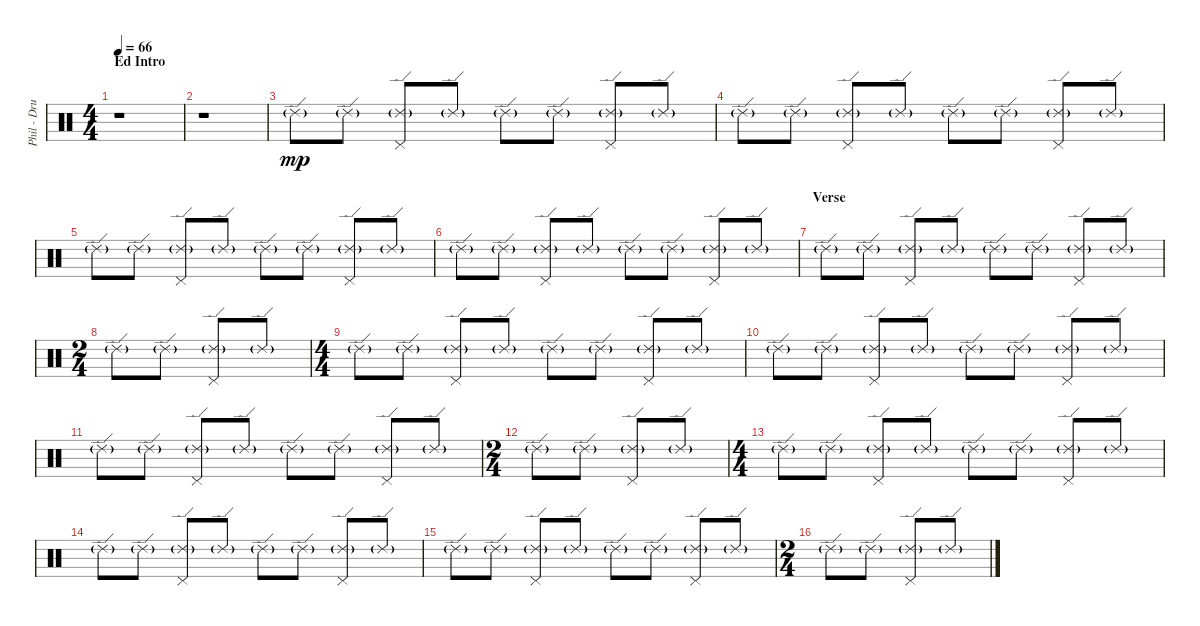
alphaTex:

\track ("Phil - Drums" "Phil - Dru") {instrument percussion}
\staff {score}
\articulation defaults
\ts (4 4)
\section ("" "Ed Intro")
\tempo 66
\clef neutral
\ks c
r.1{dy mp} |
r.1 |
"Ride (edge) 2"{g}.8 "Ride (edge) 2"{g}.8 ("Pedal Hi-Hat (hit)" "Ride (edge) 2"{g}).8 "Ride (edge) 2"{g}.8 "Ride (edge) 2"{g}.8 "Ride (edge) 2"{g}.8 ("Pedal Hi-Hat (hit)" "Ride (edge) 2"{g}).8 "Ride (edge) 2"{g}.8 |
"Ride (edge) 2"{g}.8 "Ride (edge) 2"{g}.8 ("Pedal Hi-Hat (hit)" "Ride (edge) 2"{g}).8 "Ride (edge) 2"{g}.8 "Ride (edge) 2"{g}.8 "Ride (edge) 2"{g}.8 ("Pedal Hi-Hat (hit)" "Ride (edge) 2"{g}).8 "Ride (edge) 2"{g}.8 |
"Ride (edge) 2"{g}.8 "Ride (edge) 2"{g}.8 ("Pedal Hi-Hat (hit)" "Ride (edge) 2"{g}).8 "Ride (edge) 2"{g}.8 "Ride (edge) 2"{g}.8 "Ride (edge) 2"{g}.8 ("Pedal Hi-Hat (hit)" "Ride (edge) 2"{g}).8 "Ride (edge) 2"{g}.8 |
"Ride (edge) 2"{g}.8 "Ride (edge) 2"{g}.8 ("Pedal Hi-Hat (hit)" "Ride (edge) 2"{g}).8 "Ride (edge) 2"{g}.8 "Ride (edge) 2"{g}.8 "Ride (edge) 2"{g}.8 ("Pedal Hi-Hat (hit)" "Ride (edge) 2"{g}).8 "Ride (edge) 2"{g}.8 |
\section ("" "Verse")
"Ride (edge) 2"{g}.8 "Ride (edge) 2"{g}.8 ("Pedal Hi-Hat (hit)" "Ride (edge) 2"{g}).8 "Ride (edge) 2"{g}.8 "Ride (edge) 2"{g}.8 "Ride (edge) 2"{g}.8 ("Pedal Hi-Hat (hit)" "Ride (edge) 2"{g}).8 "Ride (edge) 2"{g}.8 |
\ts (2 4)
"Ride (edge) 2"{g}.8 "Ride (edge) 2"{g}.8 ("Pedal Hi-Hat (hit)" "Ride (edge) 2"{g}).8 "Ride (edge) 2"{g}.8 |
\ts (4 4)
"Ride (edge) 2"{g}.8 "Ride (edge) 2"{g}.8 ("Pedal Hi-Hat (hit)" "Ride (edge) 2"{g}).8 "Ride (edge) 2"{g}.8 "Ride (edge) 2"{g}.8 "Ride (edge) 2"{g}.8 ("Pedal Hi-Hat (hit)" "Ride (edge) 2"{g}).8 "Ride (edge) 2"{g}.8 |
"Ride (edge) 2"{g}.8 "Ride (edge) 2"{g}.8 ("Pedal Hi-Hat (hit)" "Ride (edge) 2"{g}).8 "Ride (edge) 2"{g}.8 "Ride (edge) 2"{g}.8 "Ride (edge) 2"{g}.8 ("Pedal Hi-Hat (hit)" "Ride (edge) 2"{g}).8 "Ride (edge) 2"{g}.8 |
"Ride (edge) 2"{g}.8 "Ride (edge) 2"{g}.8 ("Pedal Hi-Hat (hit)" "Ride (edge) 2"{g}).8 "Ride (edge) 2"{g}.8 "Ride (edge) 2"{g}.8 "Ride (edge) 2"{g}.8 ("Pedal Hi-Hat (hit)" "Ride (edge) 2"{g}).8 "Ride (edge) 2"{g}.8 |
\ts (2 4)
"Ride (edge) 2"{g}.8 "Ride (edge) 2"{g}.8 ("Pedal Hi-Hat (hit)" "Ride (edge) 2"{g}).8 "Ride (edge) 2"{g}.8 |
\ts (4 4)
"Ride (edge) 2"{g}.8 "Ride (edge) 2"{g}.8 ("Pedal Hi-Hat (hit)" "Ride (edge) 2"{g}).8 "Ride (edge) 2"{g}.8 "Ride (edge) 2"{g}.8 "Ride (edge) 2"{g}.8 ("Pedal Hi-Hat (hit)" "Ride (edge) 2"{g}).8 "Ride (edge) 2"{g}.8 |
"Ride (edge) 2"{g}.8 "Ride (edge) 2"{g}.8 ("Pedal Hi-Hat (hit)" "Ride (edge) 2"{g}).8 "Ride (edge) 2"{g}.8 "Ride (edge) 2"{g}.8 "Ride (edge) 2"{g}.8 ("Pedal Hi-Hat (hit)" "Ride (edge) 2"{g}).8 "Ride (edge) 2"{g}.8 |
"Ride (edge) 2"{g}.8 "Ride (edge) 2"{g}.8 ("Pedal Hi-Hat (hit)" "Ride (edge) 2"{g}).8 "Ride (edge) 2"{g}.8 "Ride (edge) 2"{g}.8 "Ride (edge) 2"{g}.8 ("Pedal Hi-Hat (hit)" "Ride (edge) 2"{g}).8 "Ride (edge) 2"{g}.8 |
\ts (2 4)
"Ride (edge) 2"{g}.8 "Ride (edge) 2"{g}.8 ("Pedal Hi-Hat (hit)" "Ride (edge) 2"{g}).8 "Ride (edge) 2"{g}.8
